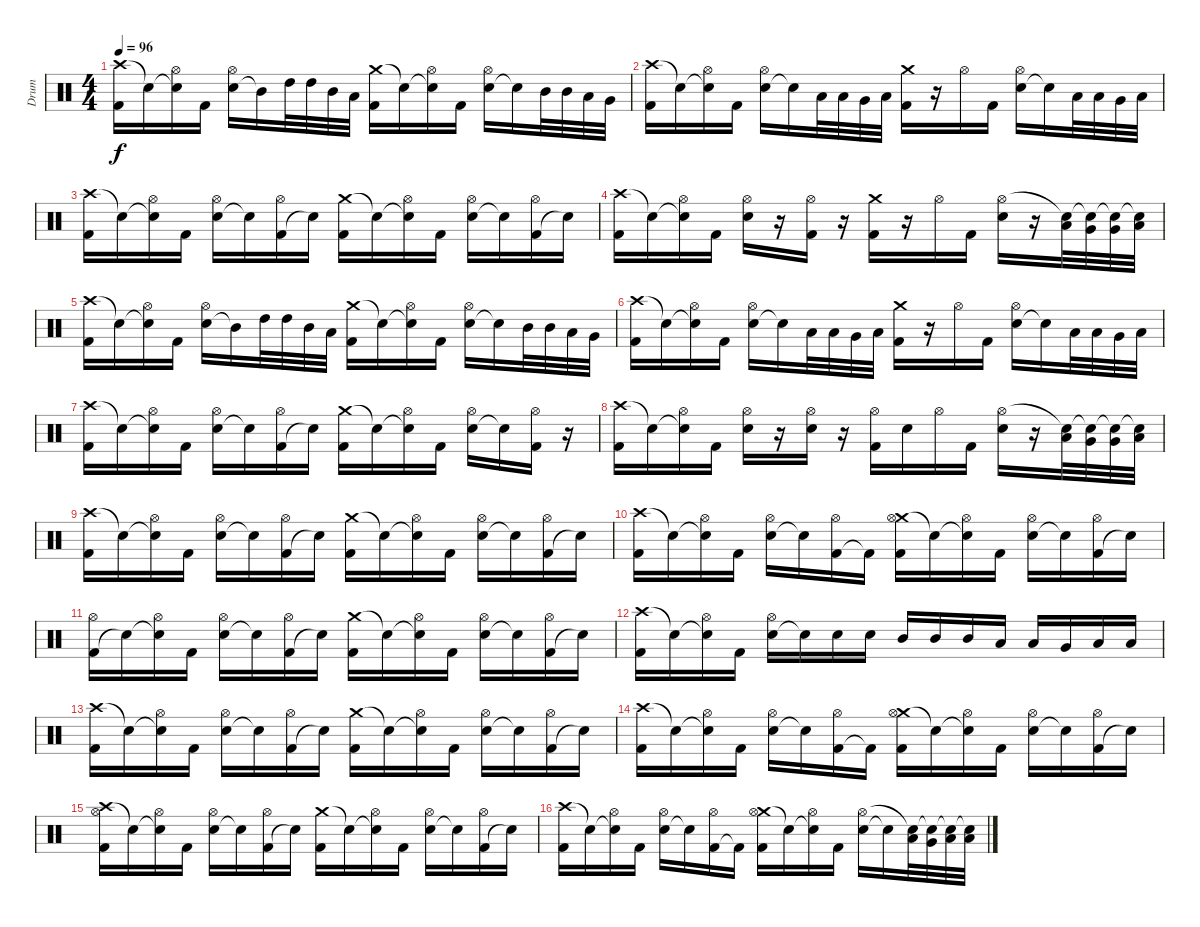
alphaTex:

\track ("Drum" "Drum") {instrument percussion}
\staff {score}
\articulation defaults
\ts (4 4)
\tempo 96
\clef neutral
\ks c
("Crash high (hit)" "Kick (hit) 2").16{dy f} "Snare (hit)"{t}.16 ("Snare (hit)"{t} "Hi-Hat (open)").16 "Kick (hit) 2".16 ("Electric Snare (hit)" "Hi-Hat (open)").16 "Mid Tom (hit)"{t}.16 "High Tom (hit)".32{balance 0} "High Tom (hit)".32 "Mid Tom (hit)".32 "Low Tom (hit)".32 ("Crash medium (hit)" "Kick (hit) 2").16{balance 8} "Snare (hit)"{t}.16 ("Snare (hit)"{t} "Hi-Hat (open)").16 "Kick (hit) 2".16 ("Electric Snare (hit)" "Hi-Hat (open)").16 "Snare (hit)"{t}.16 "Mid Tom (hit)".32{balance 16} "Mid Tom (hit)".32 "Low Tom (hit)".32 "Very Low Tom (hit)".32 |
("Crash high (hit)" "Kick (hit) 2").16{balance 8} "Snare (hit)"{t}.16 ("Snare (hit)"{t} "Hi-Hat (open)").16 "Kick (hit) 2".16 ("Electric Snare (hit)" "Hi-Hat (open)").16 "Snare (hit)"{t}.16 "Low Tom (hit)".32{balance 0} "Low Tom (hit)".32 "Very Low Tom (hit)".32 "Low Floor Tom (hit)".32 ("Crash medium (hit)" "Kick (hit) 2").16{balance 8} r.16 "Hi-Hat (open)".16 "Kick (hit) 2".16 ("Electric Snare (hit)" "Hi-Hat (open)").16 "Snare (hit)"{t}.16 "Low Tom (hit)".32{balance 16} "Low Tom (hit)".32 "Very Low Tom (hit)".32 "Low Floor Tom (hit)".32 |
("Crash high (hit)" "Kick (hit) 2").16{balance 8} "Snare (hit)"{t}.16 ("Snare (hit)"{t} "Hi-Hat (open)").16 "Kick (hit) 2".16 ("Electric Snare (hit)" "Hi-Hat (open)").16 "Snare (hit)"{t}.16 ("Kick (hit) 2" "Hi-Hat (open)").16 "Snare (hit)"{t}.16 ("Crash medium (hit)" "Kick (hit) 2").16 "Snare (hit)"{t}.16 ("Snare (hit)"{t} "Hi-Hat (open)").16 "Kick (hit) 2".16 ("Electric Snare (hit)" "Hi-Hat (open)").16 "Snare (hit)"{t}.16 ("Kick (hit) 2" "Hi-Hat (open)").16 "Snare (hit)"{t}.16 |
("Crash high (hit)" "Kick (hit) 2").16 "Snare (hit)"{t}.16 ("Snare (hit)"{t} "Hi-Hat (open)").16 "Kick (hit) 2".16 ("Electric Snare (hit)" "Hi-Hat (open)").16 r.16 ("Kick (hit) 2" "Hi-Hat (open)").16 r.16 ("Crash medium (hit)" "Kick (hit) 2").16 r.16 "Hi-Hat (open)".16 "Kick (hit) 2".16 ("Electric Snare (hit)" "Hi-Hat (open)").16 r.16 ("Low Tom (hit)" "Snare (hit)"{t}).32 ("Very Low Tom (hit)" "Snare (hit)"{t}).32 ("Very Low Tom (hit)" "Snare (hit)"{t}).32 ("Low Floor Tom (hit)" "Snare (hit)"{t}).32 |
("Crash high (hit)" "Kick (hit) 2").16 "Snare (hit)"{t}.16 ("Snare (hit)"{t} "Hi-Hat (open)").16 "Kick (hit) 2".16 ("Electric Snare (hit)" "Hi-Hat (open)").16 "Mid Tom (hit)"{t}.16 "High Tom (hit)".32{balance 0} "High Tom (hit)".32 "Mid Tom (hit)".32 "Low Tom (hit)".32 ("Crash medium (hit)" "Kick (hit) 2").16{balance 8} "Snare (hit)"{t}.16 ("Snare (hit)"{t} "Hi-Hat (open)").16 "Kick (hit) 2".16 ("Electric Snare (hit)" "Hi-Hat (open)").16 "Snare (hit)"{t}.16 "Mid Tom (hit)".32{balance 16} "Mid Tom (hit)".32 "Low Tom (hit)".32 "Very Low Tom (hit)".32 |
("Crash high (hit)" "Kick (hit) 2").16{balance 8} "Snare (hit)"{t}.16 ("Snare (hit)"{t} "Hi-Hat (open)").16 "Kick (hit) 2".16 ("Electric Snare (hit)" "Hi-Hat (open)").16 "Snare (hit)"{t}.16 "Low Tom (hit)".32{balance 0} "Low Tom (hit)".32 "Very Low Tom (hit)".32 "Low Floor Tom (hit)".32 ("Crash medium (hit)" "Kick (hit) 2").16{balance 8} r.16 "Hi-Hat (open)".16 "Kick (hit) 2".16 ("Electric Snare (hit)" "Hi-Hat (open)").16 "Snare (hit)"{t}.16 "Low Tom (hit)".32{balance 16} "Low Tom (hit)".32 "Very Low Tom (hit)".32 "Low Floor Tom (hit)".32 |
("Crash high (hit)" "Kick (hit) 2").16{balance 8} "Snare (hit)"{t}.16 ("Snare (hit)"{t} "Hi-Hat (open)").16 "Kick (hit) 2".16 ("Electric Snare (hit)" "Hi-Hat (open)").16 "Snare (hit)"{t}.16 ("Kick (hit) 2" "Hi-Hat (open)").16 "Snare (hit)"{t}.16 ("Crash medium (hit)" "Kick (hit) 2").16 "Snare (hit)"{t}.16 ("Snare (hit)"{t} "Hi-Hat (open)").16 "Kick (hit) 2".16 ("Electric Snare (hit)" "Hi-Hat (open)").16 "Snare (hit)"{t}.16 ("Kick (hit) 2" "Hi-Hat (open)").16 r.16 |
("Crash high (hit)" "Kick (hit) 2").16 "Snare (hit)"{t}.16 ("Snare (hit)"{t} "Hi-Hat (open)").16 "Kick (hit) 2".16 ("Electric Snare (hit)" "Hi-Hat (open)").16 r.16 ("Electric Snare (hit)" "Hi-Hat (open)").16 r.16 ("Kick (hit) 2" "Hi-Hat (open)").16 "Electric Snare (hit)".16 "Hi-Hat (open)".16 "Kick (hit) 2".16 ("Electric Snare (hit)" "Hi-Hat (open)").16 r.16 ("Low Tom (hit)" "Snare (hit)"{t}).32 ("Very Low Tom (hit)" "Snare (hit)"{t}).32 ("Very Low Tom (hit)" "Snare (hit)"{t}).32 ("Low Floor Tom (hit)" "Snare (hit)"{t}).32 |
("Crash high (hit)" "Kick (hit) 2").16 "Snare (hit)"{t}.16 ("Snare (hit)"{t} "Hi-Hat (open)").16 "Kick (hit) 2".16 ("Electric Snare (hit)" "Hi-Hat (open)").16 "Snare (hit)"{t}.16 ("Kick (hit) 2" "Hi-Hat (open)").16 "Snare (hit)"{t}.16 ("Crash medium (hit)" "Kick (hit) 2").16 "Snare (hit)"{t}.16 ("Snare (hit)"{t} "Hi-Hat (open)").16 "Kick (hit) 2".16 ("Electric Snare (hit)" "Hi-Hat (open)").16 "Snare (hit)"{t}.16 ("Kick (hit) 2" "Hi-Hat (open)").16 "Snare (hit)"{t}.16 |
("Crash high (hit)" "Kick (hit) 2").16 "Snare (hit)"{t}.16 ("Snare (hit)"{t} "Hi-Hat (open)").16 "Kick (hit) 2".16 ("Electric Snare (hit)" "Hi-Hat (open)").16 "Snare (hit)"{t}.16 ("Kick (hit) 2" "Hi-Hat (open)").16 "Kick (hit) 2"{t}.16 ("Crash medium (hit)" "Kick (hit) 2" "Hi-Hat (open)").16 "Snare (hit)"{t}.16 ("Snare (hit)"{t} "Hi-Hat (open)").16 "Kick (hit) 2".16 ("Electric Snare (hit)" "Hi-Hat (open)").16 "Snare (hit)"{t}.16 ("Kick (hit) 2" "Hi-Hat (open)").16 "Snare (hit)"{t}.16 |
("Kick (hit) 2" "Hi-Hat (open)").16 "Snare (hit)"{t}.16 ("Snare (hit)"{t} "Hi-Hat (open)").16 "Kick (hit) 2".16 ("Electric Snare (hit)" "Hi-Hat (open)").16 "Snare (hit)"{t}.16 ("Kick (hit) 2" "Hi-Hat (open)").16 "Snare (hit)"{t}.16 ("Crash medium (hit)" "Kick (hit) 2").16 "Snare (hit)"{t}.16 ("Snare (hit)"{t} "Hi-Hat (open)").16 "Kick (hit) 2".16 ("Electric Snare (hit)" "Hi-Hat (open)").16 "Snare (hit)"{t}.16 ("Kick (hit) 2" "Hi-Hat (open)").16 "Snare (hit)"{t}.16 |
("Crash high (hit)" "Kick (hit) 2").16 "Snare (hit)"{t}.16 ("Snare (hit)"{t} "Hi-Hat (open)").16 "Kick (hit) 2".16 ("Electric Snare (hit)" "Hi-Hat (open)").16 "Snare (hit)"{t}.16 "Electric Snare (hit)".16 "Electric Snare (hit)".16 "Mid Tom (hit)".16 "Mid Tom (hit)".16 "Mid Tom (hit)".16 "Low Tom (hit)".16 "Low Tom (hit)".16 "Very Low Tom (hit)".16 "Low Floor Tom (hit)".16 "Low Floor Tom (hit)".16 |
("Crash high (hit)" "Kick (hit) 2").16 "Snare (hit)"{t}.16 ("Snare (hit)"{t} "Hi-Hat (open)").16 "Kick (hit) 2".16 ("Electric Snare (hit)" "Hi-Hat (open)").16 "Snare (hit)"{t}.16 ("Kick (hit) 2" "Hi-Hat (open)").16 "Snare (hit)"{t}.16 ("Crash medium (hit)" "Kick (hit) 2").16 "Snare (hit)"{t}.16 ("Snare (hit)"{t} "Hi-Hat (open)").16 "Kick (hit) 2".16 ("Electric Snare (hit)" "Hi-Hat (open)").16 "Snare (hit)"{t}.16 ("Kick (hit) 2" "Hi-Hat (open)").16 "Snare (hit)"{t}.16 |
("Crash high (hit)" "Kick (hit) 2").16 "Snare (hit)"{t}.16 ("Snare (hit)"{t} "Hi-Hat (open)").16 "Kick (hit) 2".16 ("Electric Snare (hit)" "Hi-Hat (open)").16 "Snare (hit)"{t}.16 ("Kick (hit) 2" "Hi-Hat (open)").16 "Kick (hit) 2"{t}.16 ("Crash medium (hit)" "Kick (hit) 2" "Hi-Hat (open)").16 "Snare (hit)"{t}.16 ("Snare (hit)"{t} "Hi-Hat (open)").16 "Kick (hit) 2".16 ("Electric Snare (hit)" "Hi-Hat (open)").16 "Snare (hit)"{t}.16 ("Kick (hit) 2" "Hi-Hat (open)").16 "Snare (hit)"{t}.16 |
("Crash high (hit)" "Kick (hit) 2" "Hi-Hat (open)").16 "Snare (hit)"{t}.16 ("Snare (hit)"{t} "Hi-Hat (open)").16 "Kick (hit) 2".16 ("Electric Snare (hit)" "Hi-Hat (open)").16 "Snare (hit)"{t}.16 ("Kick (hit) 2" "Hi-Hat (open)").16 "Snare (hit)"{t}.16 ("Crash medium (hit)" "Kick (hit) 2").16 "Snare (hit)"{t}.16 ("Snare (hit)"{t} "Hi-Hat (open)").16 "Kick (hit) 2".16 ("Electric Snare (hit)" "Hi-Hat (open)").16 "Snare (hit)"{t}.16 ("Kick (hit) 2" "Hi-Hat (open)").16 "Snare (hit)"{t}.16 |
("Crash high (hit)" "Kick (hit) 2").16 "Snare (hit)"{t}.16 ("Snare (hit)"{t} "Hi-Hat (open)").16 "Kick (hit) 2".16 ("Electric Snare (hit)" "Hi-Hat (open)").16 "Snare (hit)"{t}.16 ("Kick (hit) 2" "Hi-Hat (open)").16 "Kick (hit) 2"{t}.16 ("Crash medium (hit)" "Kick (hit) 2" "Hi-Hat (open)").16 "Snare (hit)"{t}.16 ("Snare (hit)"{t} "Hi-Hat (open)").16 "Kick (hit) 2".16 ("Electric Snare (hit)" "Hi-Hat (open)").16 "Snare (hit)"{t}.16 ("Low Tom (hit)" "Snare (hit)"{t}).32 ("Very Low Tom (hit)" "Snare (hit)"{t}).32 ("Low Floor Tom (hit)" "Snare (hit)"{t}).32 ("Low Floor Tom (hit)" "Snare (hit)"{t}).32
